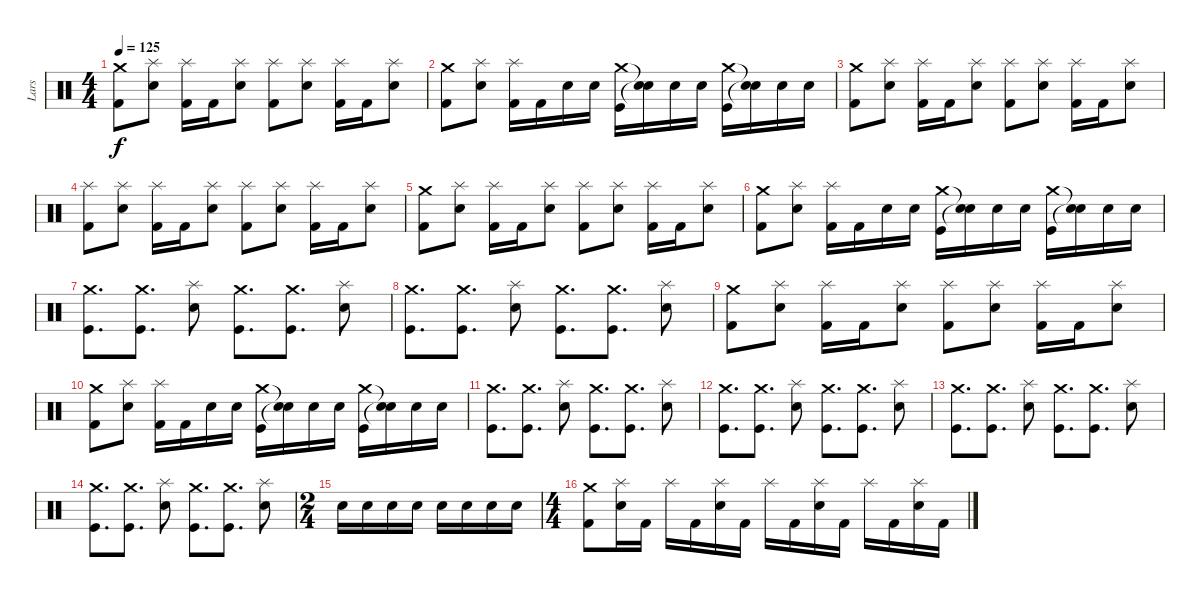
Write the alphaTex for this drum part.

\track ("Lars" "Lars") {instrument percussion}
\staff {score}
\articulation defaults
\ts (4 4)
\tempo 125
\clef neutral
\ks c
("Crash medium (hit)" "Kick (hit) 2").8{dy f} ("Splash (hit)" "Snare (hit) 2").8 ("Splash (hit)" "Kick (hit) 2").16 "Kick (hit) 2".16 ("Splash (hit)" "Snare (hit) 2").8 ("Splash (hit)" "Kick (hit) 2").8 ("Splash (hit)" "Snare (hit) 2").8 ("Splash (hit)" "Kick (hit) 2").16 "Kick (hit) 2".16 ("Splash (hit)" "Snare (hit) 2").8 |
("Crash medium (hit)" "Kick (hit) 2").8 ("Splash (hit)" "Snare (hit) 2").8 ("Splash (hit)" "Kick (hit) 2").16 "Kick (hit) 2".16 "Snare (hit) 2".16 "Snare (hit) 2".16 ("Crash medium (hit)" "Kick (hit)").16 ("Snare (hit)"{t} "Snare (hit)"{t}).16 "Snare (hit) 2".16 "Snare (hit) 2".16 ("Crash medium (hit)" "Kick (hit)").16 ("Snare (hit)"{t} "Snare (hit)"{t}).16 "Snare (hit) 2".16 "Snare (hit) 2".16 |
("Crash medium (hit)" "Kick (hit) 2").8 ("Splash (hit)" "Snare (hit) 2").8 ("Splash (hit)" "Kick (hit) 2").16 "Kick (hit) 2".16 ("Splash (hit)" "Snare (hit) 2").8 ("Splash (hit)" "Kick (hit) 2").8 ("Splash (hit)" "Snare (hit) 2").8 ("Splash (hit)" "Kick (hit) 2").16 "Kick (hit) 2".16 ("Splash (hit)" "Snare (hit) 2").8 |
("Splash (hit)" "Kick (hit) 2").8 ("Splash (hit)" "Snare (hit) 2").8 ("Splash (hit)" "Kick (hit) 2").16 "Kick (hit) 2".16 ("Splash (hit)" "Snare (hit) 2").8 ("Splash (hit)" "Kick (hit) 2").8 ("Splash (hit)" "Snare (hit) 2").8 ("Splash (hit)" "Kick (hit) 2").16 "Kick (hit) 2".16 ("Splash (hit)" "Snare (hit) 2").8 |
("Crash medium (hit)" "Kick (hit) 2").8 ("Splash (hit)" "Snare (hit) 2").8 ("Splash (hit)" "Kick (hit) 2").16 "Kick (hit) 2".16 ("Splash (hit)" "Snare (hit) 2").8 ("Splash (hit)" "Kick (hit) 2").8 ("Splash (hit)" "Snare (hit) 2").8 ("Splash (hit)" "Kick (hit) 2").16 "Kick (hit) 2".16 ("Splash (hit)" "Snare (hit) 2").8 |
("Crash medium (hit)" "Kick (hit) 2").8 ("Splash (hit)" "Snare (hit) 2").8 ("Splash (hit)" "Kick (hit) 2").16 "Kick (hit) 2".16 "Snare (hit) 2".16 "Snare (hit) 2".16 ("Crash medium (hit)" "Kick (hit)").16 ("Snare (hit)"{t} "Snare (hit)"{t}).16 "Snare (hit) 2".16 "Snare (hit) 2".16 ("Crash medium (hit)" "Kick (hit)").16 ("Snare (hit)"{t} "Snare (hit)"{t}).16 "Snare (hit) 2".16 "Snare (hit) 2".16 |
("Crash medium (hit)" "Kick (hit)").8{d} ("Crash medium (hit)" "Kick (hit)").8{d} ("Splash (hit)" "Snare (hit) 2").8 ("Crash medium (hit)" "Kick (hit)").8{d} ("Crash medium (hit)" "Kick (hit)").8{d} ("Splash (hit)" "Snare (hit) 2").8 |
("Crash medium (hit)" "Kick (hit)").8{d} ("Crash medium (hit)" "Kick (hit)").8{d} ("Splash (hit)" "Snare (hit) 2").8 ("Crash medium (hit)" "Kick (hit)").8{d} ("Crash medium (hit)" "Kick (hit)").8{d} ("Splash (hit)" "Snare (hit) 2").8 |
("Crash medium (hit)" "Kick (hit) 2").8 ("Splash (hit)" "Snare (hit) 2").8 ("Splash (hit)" "Kick (hit) 2").16 "Kick (hit) 2".16 ("Splash (hit)" "Snare (hit) 2").8 ("Splash (hit)" "Kick (hit) 2").8 ("Splash (hit)" "Snare (hit) 2").8 ("Splash (hit)" "Kick (hit) 2").16 "Kick (hit) 2".16 ("Splash (hit)" "Snare (hit) 2").8 |
("Crash medium (hit)" "Kick (hit) 2").8 ("Splash (hit)" "Snare (hit) 2").8 ("Splash (hit)" "Kick (hit) 2").16 "Kick (hit) 2".16 "Snare (hit) 2".16 "Snare (hit) 2".16 ("Crash medium (hit)" "Kick (hit)").16 ("Snare (hit)"{t} "Snare (hit)"{t}).16 "Snare (hit) 2".16 "Snare (hit) 2".16 ("Crash medium (hit)" "Kick (hit)").16 ("Snare (hit)"{t} "Snare (hit)"{t}).16 "Snare (hit) 2".16 "Snare (hit) 2".16 |
("Crash medium (hit)" "Kick (hit)").8{d} ("Crash medium (hit)" "Kick (hit)").8{d} ("Splash (hit)" "Snare (hit) 2").8 ("Crash medium (hit)" "Kick (hit)").8{d} ("Crash medium (hit)" "Kick (hit)").8{d} ("Splash (hit)" "Snare (hit) 2").8 |
("Crash medium (hit)" "Kick (hit)").8{d} ("Crash medium (hit)" "Kick (hit)").8{d} ("Splash (hit)" "Snare (hit) 2").8 ("Crash medium (hit)" "Kick (hit)").8{d} ("Crash medium (hit)" "Kick (hit)").8{d} ("Splash (hit)" "Snare (hit) 2").8 |
("Crash medium (hit)" "Kick (hit)").8{d} ("Crash medium (hit)" "Kick (hit)").8{d} ("Splash (hit)" "Snare (hit) 2").8 ("Crash medium (hit)" "Kick (hit)").8{d} ("Crash medium (hit)" "Kick (hit)").8{d} ("Splash (hit)" "Snare (hit) 2").8 |
("Crash medium (hit)" "Kick (hit)").8{d} ("Crash medium (hit)" "Kick (hit)").8{d} ("Splash (hit)" "Snare (hit) 2").8 ("Crash medium (hit)" "Kick (hit)").8{d} ("Crash medium (hit)" "Kick (hit)").8{d} ("Splash (hit)" "Snare (hit) 2").8 |
\ts (2 4)
"Snare (hit) 2".16 "Snare (hit) 2".16 "Snare (hit) 2".16 "Snare (hit) 2".16 "Snare (hit) 2".16 "Snare (hit) 2".16 "Snare (hit) 2".16 "Snare (hit) 2".16 |
\ts (4 4)
("Crash medium (hit)" "Kick (hit) 2").8 ("Splash (hit)" "Snare (hit) 2").16 "Kick (hit) 2".16 "Splash (hit)".16 "Kick (hit) 2".16 ("Splash (hit)" "Snare (hit) 2").16 "Kick (hit) 2".16 "Splash (hit)".16 "Kick (hit) 2".16 ("Splash (hit)" "Snare (hit) 2").16 "Kick (hit) 2".16 "Splash (hit)".16 "Kick (hit) 2".16 ("Splash (hit)" "Snare (hit) 2").16 "Kick (hit) 2".16
